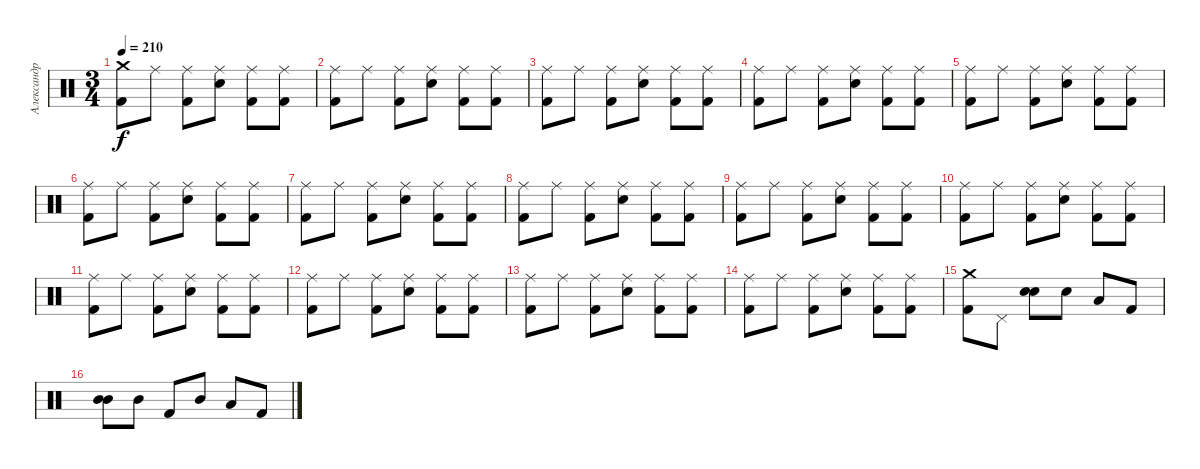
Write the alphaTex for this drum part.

\track ("Александр Манякин" "Александр ") {instrument percussion}
\staff {score}
\articulation defaults
\ts (3 4)
\tempo 210
\clef neutral
\ks c
("Crash medium (hit)" "Kick (hit) 2").8{dy f} "Ride (middle)".8 ("Ride (middle)" "Kick (hit) 2").8 ("Ride (middle)" "Snare (hit) 2").8 ("Ride (middle)" "Kick (hit) 2").8 ("Ride (middle)" "Kick (hit) 2").8 |
("Ride (middle)" "Kick (hit) 2").8 "Ride (middle)".8 ("Ride (middle)" "Kick (hit) 2").8 ("Ride (middle)" "Snare (hit) 2").8 ("Ride (middle)" "Kick (hit) 2").8 ("Ride (middle)" "Kick (hit) 2").8 |
("Ride (middle)" "Kick (hit) 2").8 "Ride (middle)".8 ("Ride (middle)" "Kick (hit) 2").8 ("Ride (middle)" "Snare (hit) 2").8 ("Ride (middle)" "Kick (hit) 2").8 ("Ride (middle)" "Kick (hit) 2").8 |
("Ride (middle)" "Kick (hit) 2").8 "Ride (middle)".8 ("Ride (middle)" "Kick (hit) 2").8 ("Ride (middle)" "Snare (hit) 2").8 ("Ride (middle)" "Kick (hit) 2").8 ("Ride (middle)" "Kick (hit) 2").8 |
("Ride (middle)" "Kick (hit) 2").8 "Ride (middle)".8 ("Ride (middle)" "Kick (hit) 2").8 ("Ride (middle)" "Snare (hit) 2").8 ("Ride (middle)" "Kick (hit) 2").8 ("Ride (middle)" "Kick (hit) 2").8 |
("Ride (middle)" "Kick (hit) 2").8 "Ride (middle)".8 ("Ride (middle)" "Kick (hit) 2").8 ("Ride (middle)" "Snare (hit) 2").8 ("Ride (middle)" "Kick (hit) 2").8 ("Ride (middle)" "Kick (hit) 2").8 |
("Ride (middle)" "Kick (hit) 2").8 "Ride (middle)".8 ("Ride (middle)" "Kick (hit) 2").8 ("Ride (middle)" "Snare (hit) 2").8 ("Ride (middle)" "Kick (hit) 2").8 ("Ride (middle)" "Kick (hit) 2").8 |
("Ride (middle)" "Kick (hit) 2").8 "Ride (middle)".8 ("Ride (middle)" "Kick (hit) 2").8 ("Ride (middle)" "Snare (hit) 2").8 ("Ride (middle)" "Kick (hit) 2").8 ("Ride (middle)" "Kick (hit) 2").8 |
("Ride (middle)" "Kick (hit) 2").8 "Ride (middle)".8 ("Ride (middle)" "Kick (hit) 2").8 ("Ride (middle)" "Snare (hit) 2").8 ("Ride (middle)" "Kick (hit) 2").8 ("Ride (middle)" "Kick (hit) 2").8 |
("Ride (middle)" "Kick (hit) 2").8 "Ride (middle)".8 ("Ride (middle)" "Kick (hit) 2").8 ("Ride (middle)" "Snare (hit) 2").8 ("Ride (middle)" "Kick (hit) 2").8 ("Ride (middle)" "Kick (hit) 2").8 |
("Ride (middle)" "Kick (hit) 2").8 "Ride (middle)".8 ("Ride (middle)" "Kick (hit) 2").8 ("Ride (middle)" "Snare (hit) 2").8 ("Ride (middle)" "Kick (hit) 2").8 ("Ride (middle)" "Kick (hit) 2").8 |
("Ride (middle)" "Kick (hit) 2").8 "Ride (middle)".8 ("Ride (middle)" "Kick (hit) 2").8 ("Ride (middle)" "Snare (hit) 2").8 ("Ride (middle)" "Kick (hit) 2").8 ("Ride (middle)" "Kick (hit) 2").8 |
("Ride (middle)" "Kick (hit) 2").8 "Ride (middle)".8 ("Ride (middle)" "Kick (hit) 2").8 ("Ride (middle)" "Snare (hit) 2").8 ("Ride (middle)" "Kick (hit) 2").8 ("Ride (middle)" "Kick (hit) 2").8 |
("Ride (middle)" "Kick (hit) 2").8 "Ride (middle)".8 ("Ride (middle)" "Kick (hit) 2").8 ("Ride (middle)" "Snare (hit) 2").8 ("Ride (middle)" "Kick (hit) 2").8 ("Ride (middle)" "Kick (hit) 2").8 |
("Crash medium (hit)" "Kick (hit) 2").8 "Pedal Hi-Hat (hit)".8 ("Snare (hit) 2" "Snare (hit) 2").8{bd 60} "Snare (hit) 2".8 "Low Tom (hit)".8 "Kick (hit) 2".8 |
("Mid Tom (hit)" "Mid Tom (hit)").8{bd 60} "Mid Tom (hit)".8 "Kick (hit) 2".8 "Mid Tom (hit)".8 "Low Tom (hit)".8 "Kick (hit) 2".8
